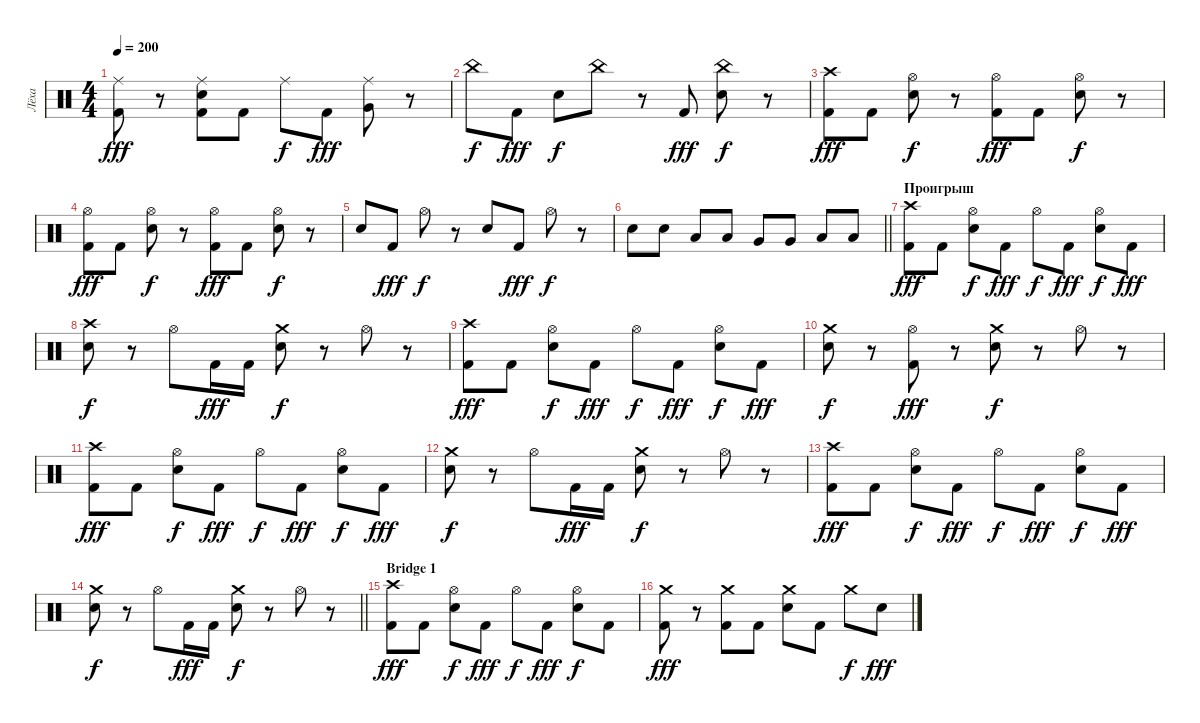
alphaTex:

\track ("Лёха" "Лёха") {instrument percussion}
\staff {score}
\articulation defaults
\ts (4 4)
\tempo 200
\clef neutral
\ks c
("Ride (middle)" "Kick (hit) 2").8{dy fff} r.8 ("Ride (middle)" "Electric Snare (hit)" "Kick (hit) 2").8 "Kick (hit) 2".8 "Ride (middle)".8{dy f} "Kick (hit) 2".8{dy fff} ("Ride (middle)" "Very Low Tom (hit)").8 r.8 |
"China (hit)".8{dy f} "Kick (hit) 2".8{dy fff} "Electric Snare (hit)".8{dy f} "China (hit)".8 r.8 "Kick (hit) 2".8{dy fff} ("China (hit)" "Electric Snare (hit)").8{dy f} r.8 |
("Crash high (hit)" "Kick (hit) 2").8{dy fff} "Kick (hit) 2".8 ("Hi-Hat (open)" "Electric Snare (hit)").8{dy f} r.8 ("Hi-Hat (open)" "Kick (hit) 2").8{dy fff} "Kick (hit) 2".8 ("Hi-Hat (open)" "Electric Snare (hit)").8{dy f} r.8 |
("Hi-Hat (open)" "Kick (hit) 2").8{dy fff} "Kick (hit) 2".8 ("Hi-Hat (open)" "Electric Snare (hit)").8{dy f} r.8 ("Hi-Hat (open)" "Kick (hit) 2").8{dy fff} "Kick (hit) 2".8 ("Hi-Hat (open)" "Electric Snare (hit)").8{dy f} r.8 |
"Electric Snare (hit)".8 "Kick (hit) 2".8{dy fff} "Hi-Hat (open)".8{dy f} r.8 "Electric Snare (hit)".8 "Kick (hit) 2".8{dy fff} "Hi-Hat (open)".8{dy f} r.8 |
\barLineRight lightlight "Electric Snare (hit)".8 "Electric Snare (hit)".8 "Low Tom (hit)".8 "Low Tom (hit)".8 "Very Low Tom (hit)".8 "Very Low Tom (hit)".8 "Low Floor Tom (hit)".8 "Low Floor Tom (hit)".8
|
\section ("" "Проигрыш")
("Crash high (hit)" "Kick (hit) 2").8{dy fff} "Kick (hit) 2".8 ("Hi-Hat (open)" "Electric Snare (hit)").8{dy f} "Kick (hit) 2".8{dy fff} "Hi-Hat (open)".8{dy f} "Kick (hit) 2".8{dy fff} ("Hi-Hat (open)" "Electric Snare (hit)").8{dy f} "Kick (hit) 2".8{dy fff} |
("Crash high (hit)" "Electric Snare (hit)").8{dy f} r.8 "Hi-Hat (open)".8 "Kick (hit) 2".16{dy fff} "Kick (hit) 2".16 ("Crash medium (hit)" "Electric Snare (hit)").8{dy f} r.8 "Hi-Hat (open)".8 r.8 |
("Crash high (hit)" "Kick (hit) 2").8{dy fff} "Kick (hit) 2".8 ("Hi-Hat (open)" "Electric Snare (hit)").8{dy f} "Kick (hit) 2".8{dy fff} "Hi-Hat (open)".8{dy f} "Kick (hit) 2".8{dy fff} ("Hi-Hat (open)" "Electric Snare (hit)").8{dy f} "Kick (hit) 2".8{dy fff} |
("Crash medium (hit)" "Electric Snare (hit)").8{dy f} r.8 ("Hi-Hat (open)" "Kick (hit) 2").8{dy fff} r.8 ("Crash medium (hit)" "Electric Snare (hit)").8{dy f} r.8 "Hi-Hat (open)".8 r.8 |
("Crash high (hit)" "Kick (hit) 2").8{dy fff} "Kick (hit) 2".8 ("Hi-Hat (open)" "Electric Snare (hit)").8{dy f} "Kick (hit) 2".8{dy fff} "Hi-Hat (open)".8{dy f} "Kick (hit) 2".8{dy fff} ("Hi-Hat (open)" "Electric Snare (hit)").8{dy f} "Kick (hit) 2".8{dy fff} |
("Crash medium (hit)" "Electric Snare (hit)").8{dy f} r.8 "Hi-Hat (open)".8 "Kick (hit) 2".16{dy fff} "Kick (hit) 2".16 ("Crash medium (hit)" "Electric Snare (hit)").8{dy f} r.8 "Hi-Hat (open)".8 r.8 |
("Crash high (hit)" "Kick (hit) 2").8{dy fff} "Kick (hit) 2".8 ("Hi-Hat (open)" "Electric Snare (hit)").8{dy f} "Kick (hit) 2".8{dy fff} "Hi-Hat (open)".8{dy f} "Kick (hit) 2".8{dy fff} ("Hi-Hat (open)" "Electric Snare (hit)").8{dy f} "Kick (hit) 2".8{dy fff} |
\barLineRight lightlight
("Crash medium (hit)" "Electric Snare (hit)").8{dy f} r.8 "Hi-Hat (open)".8 "Kick (hit) 2".16{dy fff} "Kick (hit) 2".16 ("Crash medium (hit)" "Electric Snare (hit)").8{dy f} r.8 "Hi-Hat (open)".8 r.8 |
\section ("" "Bridge 1")
("Crash high (hit)" "Kick (hit) 2").8{dy fff} "Kick (hit) 2".8 ("Hi-Hat (open)" "Electric Snare (hit)").8{dy f} "Kick (hit) 2".8{dy fff} "Hi-Hat (open)".8{dy f} "Kick (hit) 2".8{dy fff} ("Hi-Hat (open)" "Electric Snare (hit)").8{dy f} "Kick (hit) 2".8 |
("Crash medium (hit)" "Kick (hit) 2").8{dy fff} r.8 ("Crash medium (hit)" "Kick (hit) 2").8 "Kick (hit) 2".8 ("Crash medium (hit)" "Electric Snare (hit)").8 "Kick (hit) 2".8 "Crash medium (hit)".8{dy f} "Electric Snare (hit)".8{dy fff}
